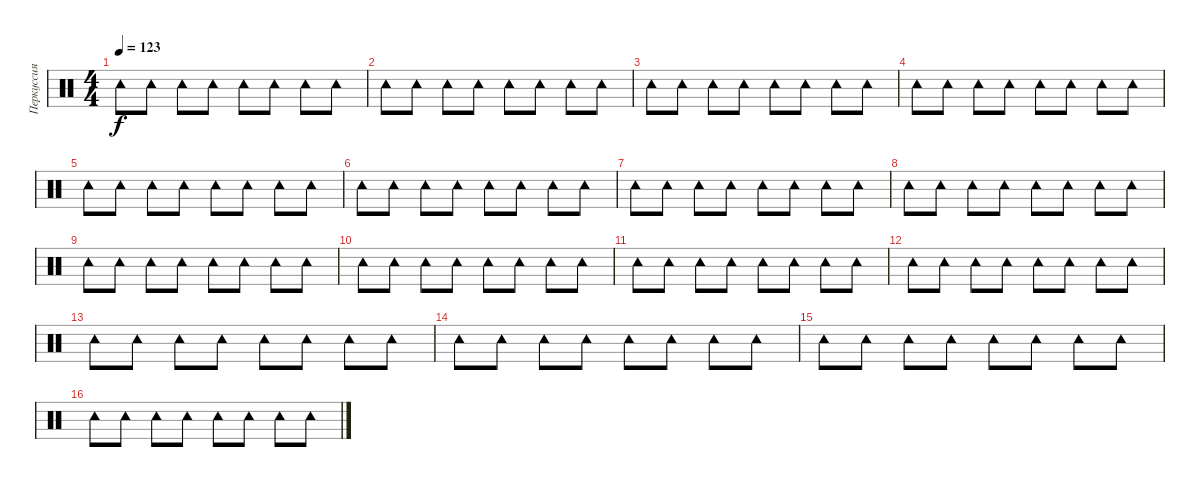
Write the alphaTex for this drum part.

\track ("Перкуссия 1" "Перкуссия ") {instrument percussion}
\staff {score}
\articulation defaults
\ts (4 4)
\tempo 123
\clef neutral
\ks c "Tambourine (hit)".8{dy f} "Tambourine (hit)".8 "Tambourine (hit)".8 "Tambourine (hit)".8 "Tambourine (hit)".8 "Tambourine (hit)".8 "Tambourine (hit)".8 "Tambourine (hit)".8
|
"Tambourine (hit)".8 "Tambourine (hit)".8 "Tambourine (hit)".8 "Tambourine (hit)".8 "Tambourine (hit)".8 "Tambourine (hit)".8 "Tambourine (hit)".8 "Tambourine (hit)".8 |
"Tambourine (hit)".8 "Tambourine (hit)".8 "Tambourine (hit)".8 "Tambourine (hit)".8 "Tambourine (hit)".8 "Tambourine (hit)".8 "Tambourine (hit)".8 "Tambourine (hit)".8 |
"Tambourine (hit)".8 "Tambourine (hit)".8 "Tambourine (hit)".8 "Tambourine (hit)".8 "Tambourine (hit)".8 "Tambourine (hit)".8 "Tambourine (hit)".8 "Tambourine (hit)".8 |
"Tambourine (hit)".8 "Tambourine (hit)".8 "Tambourine (hit)".8 "Tambourine (hit)".8 "Tambourine (hit)".8 "Tambourine (hit)".8 "Tambourine (hit)".8 "Tambourine (hit)".8 |
"Tambourine (hit)".8 "Tambourine (hit)".8 "Tambourine (hit)".8 "Tambourine (hit)".8 "Tambourine (hit)".8 "Tambourine (hit)".8 "Tambourine (hit)".8 "Tambourine (hit)".8 |
"Tambourine (hit)".8 "Tambourine (hit)".8 "Tambourine (hit)".8 "Tambourine (hit)".8 "Tambourine (hit)".8 "Tambourine (hit)".8 "Tambourine (hit)".8 "Tambourine (hit)".8 |
"Tambourine (hit)".8 "Tambourine (hit)".8 "Tambourine (hit)".8 "Tambourine (hit)".8 "Tambourine (hit)".8 "Tambourine (hit)".8 "Tambourine (hit)".8 "Tambourine (hit)".8 |
"Tambourine (hit)".8 "Tambourine (hit)".8 "Tambourine (hit)".8 "Tambourine (hit)".8 "Tambourine (hit)".8 "Tambourine (hit)".8 "Tambourine (hit)".8 "Tambourine (hit)".8 |
"Tambourine (hit)".8 "Tambourine (hit)".8 "Tambourine (hit)".8 "Tambourine (hit)".8 "Tambourine (hit)".8 "Tambourine (hit)".8 "Tambourine (hit)".8 "Tambourine (hit)".8 |
"Tambourine (hit)".8 "Tambourine (hit)".8 "Tambourine (hit)".8 "Tambourine (hit)".8 "Tambourine (hit)".8 "Tambourine (hit)".8 "Tambourine (hit)".8 "Tambourine (hit)".8 |
"Tambourine (hit)".8 "Tambourine (hit)".8 "Tambourine (hit)".8 "Tambourine (hit)".8 "Tambourine (hit)".8 "Tambourine (hit)".8 "Tambourine (hit)".8 "Tambourine (hit)".8 |
"Tambourine (hit)".8 "Tambourine (hit)".8 "Tambourine (hit)".8 "Tambourine (hit)".8 "Tambourine (hit)".8 "Tambourine (hit)".8 "Tambourine (hit)".8 "Tambourine (hit)".8 |
"Tambourine (hit)".8 "Tambourine (hit)".8 "Tambourine (hit)".8 "Tambourine (hit)".8 "Tambourine (hit)".8 "Tambourine (hit)".8 "Tambourine (hit)".8 "Tambourine (hit)".8 |
"Tambourine (hit)".8 "Tambourine (hit)".8 "Tambourine (hit)".8 "Tambourine (hit)".8 "Tambourine (hit)".8 "Tambourine (hit)".8 "Tambourine (hit)".8 "Tambourine (hit)".8 |
"Tambourine (hit)".8 "Tambourine (hit)".8 "Tambourine (hit)".8 "Tambourine (hit)".8 "Tambourine (hit)".8 "Tambourine (hit)".8 "Tambourine (hit)".8 "Tambourine (hit)".8
